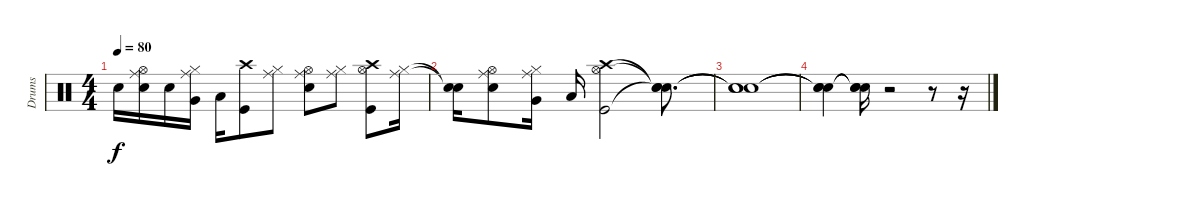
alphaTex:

\track ("Drums" "Drums") {instrument percussion}
\staff {score}
\articulation defaults
\ts (4 4)
\tempo 80
\clef neutral
\ks c "Electric Snare (hit)".16{dy f}
("Electric Snare (hit)" "Hi-Hat (open)" "Ride (middle)").16 "Electric Snare (hit)".16 ("Very Low Tom (hit)" "Hi-Hat (closed)" "Ride (middle)").16 "Low Floor Tom (hit)".16 ("Kick (hit)" "Crash high (hit)").8 ("Hi-Hat (closed)" "Ride (middle)").8 ("Electric Snare (hit)" "Hi-Hat (open)" "Ride (middle)").8 ("Hi-Hat (closed)" "Ride (middle)").8 ("Kick (hit)" "Hi-Hat (open)" "Crash high (hit)").8 ("Hi-Hat (closed)" "Ride (middle)").16 |
("Snare (hit)"{t} "Snare (hit)"{t}).16 ("Electric Snare (hit)" "Hi-Hat (open)" "Ride (middle)").8 ("Very Low Tom (hit)" "Hi-Hat (closed)" "Ride (middle)").16 "Low Floor Tom (hit)".16 ("Kick (hit)" "Hi-Hat (open)" "Crash high (hit)").2 ("Snare (hit)"{t} "Snare (hit)"{t} "Snare (hit)"{t}).8{d} |
("Snare (hit)"{t} "Snare (hit)"{t} "Snare (hit)"{t}).1 |
("Snare (hit)"{t} "Snare (hit)"{t} "Snare (hit)"{t}).4 ("Snare (hit)"{t} "Snare (hit)"{t} "Snare (hit)"{t}).16 r.2 r.8 r.16
